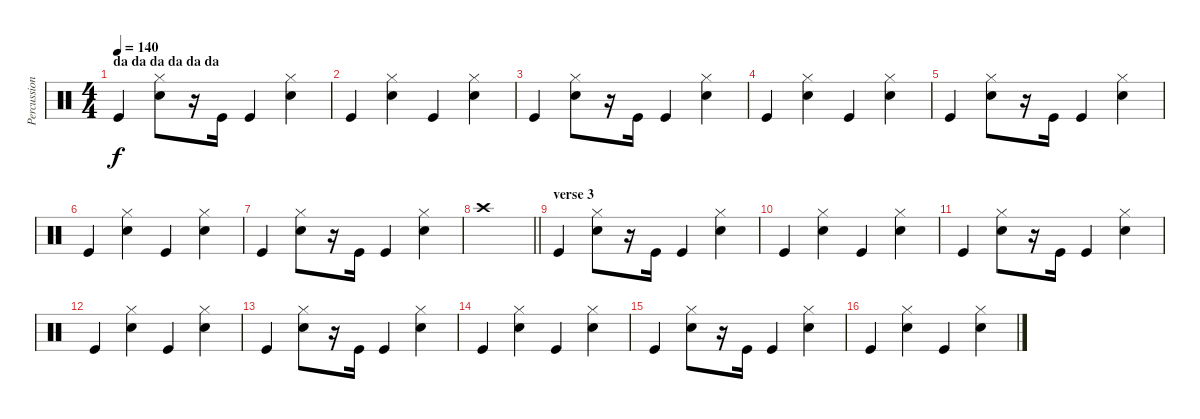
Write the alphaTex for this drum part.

\track ("Percussions" "Percussion") {instrument percussion}
\staff {score}
\articulation defaults
\ts (4 4)
\section ("" "da da da da da da")
\tempo 140
\clef neutral
\ks c "Kick (hit)".4{dy f}
("Hi-Hat (closed)" "Electric Snare (hit)").8 r.16 "Kick (hit)".16 "Kick (hit)".4 ("Hi-Hat (closed)" "Electric Snare (hit)").4 |
"Kick (hit)".4 ("Hi-Hat (closed)" "Electric Snare (hit)").4 "Kick (hit)".4 ("Hi-Hat (closed)" "Electric Snare (hit)").4 |
"Kick (hit)".4 ("Hi-Hat (closed)" "Electric Snare (hit)").8 r.16 "Kick (hit)".16 "Kick (hit)".4 ("Hi-Hat (closed)" "Electric Snare (hit)").4 |
"Kick (hit)".4 ("Hi-Hat (closed)" "Electric Snare (hit)").4 "Kick (hit)".4 ("Hi-Hat (closed)" "Electric Snare (hit)").4 |
"Kick (hit)".4 ("Hi-Hat (closed)" "Electric Snare (hit)").8 r.16 "Kick (hit)".16 "Kick (hit)".4 ("Hi-Hat (closed)" "Electric Snare (hit)").4 |
"Kick (hit)".4 ("Hi-Hat (closed)" "Electric Snare (hit)").4 "Kick (hit)".4 ("Hi-Hat (closed)" "Electric Snare (hit)").4 |
"Kick (hit)".4 ("Hi-Hat (closed)" "Electric Snare (hit)").8 r.16 "Kick (hit)".16 "Kick (hit)".4 ("Hi-Hat (closed)" "Electric Snare (hit)").4 |
\barLineRight lightlight "Crash high (hit)".1
|
\section ("" "verse 3")
"Kick (hit)".4 ("Hi-Hat (closed)" "Electric Snare (hit)").8 r.16 "Kick (hit)".16 "Kick (hit)".4 ("Hi-Hat (closed)" "Electric Snare (hit)").4 |
"Kick (hit)".4 ("Hi-Hat (closed)" "Electric Snare (hit)").4 "Kick (hit)".4 ("Hi-Hat (closed)" "Electric Snare (hit)").4 |
"Kick (hit)".4 ("Hi-Hat (closed)" "Electric Snare (hit)").8 r.16 "Kick (hit)".16 "Kick (hit)".4 ("Hi-Hat (closed)" "Electric Snare (hit)").4 |
"Kick (hit)".4 ("Hi-Hat (closed)" "Electric Snare (hit)").4 "Kick (hit)".4 ("Hi-Hat (closed)" "Electric Snare (hit)").4 |
"Kick (hit)".4 ("Hi-Hat (closed)" "Electric Snare (hit)").8 r.16 "Kick (hit)".16 "Kick (hit)".4 ("Hi-Hat (closed)" "Electric Snare (hit)").4 |
"Kick (hit)".4 ("Hi-Hat (closed)" "Electric Snare (hit)").4 "Kick (hit)".4 ("Hi-Hat (closed)" "Electric Snare (hit)").4 |
"Kick (hit)".4 ("Hi-Hat (closed)" "Electric Snare (hit)").8 r.16 "Kick (hit)".16 "Kick (hit)".4 ("Hi-Hat (closed)" "Electric Snare (hit)").4 |
"Kick (hit)".4 ("Hi-Hat (closed)" "Electric Snare (hit)").4 "Kick (hit)".4 ("Hi-Hat (closed)" "Electric Snare (hit)").4
